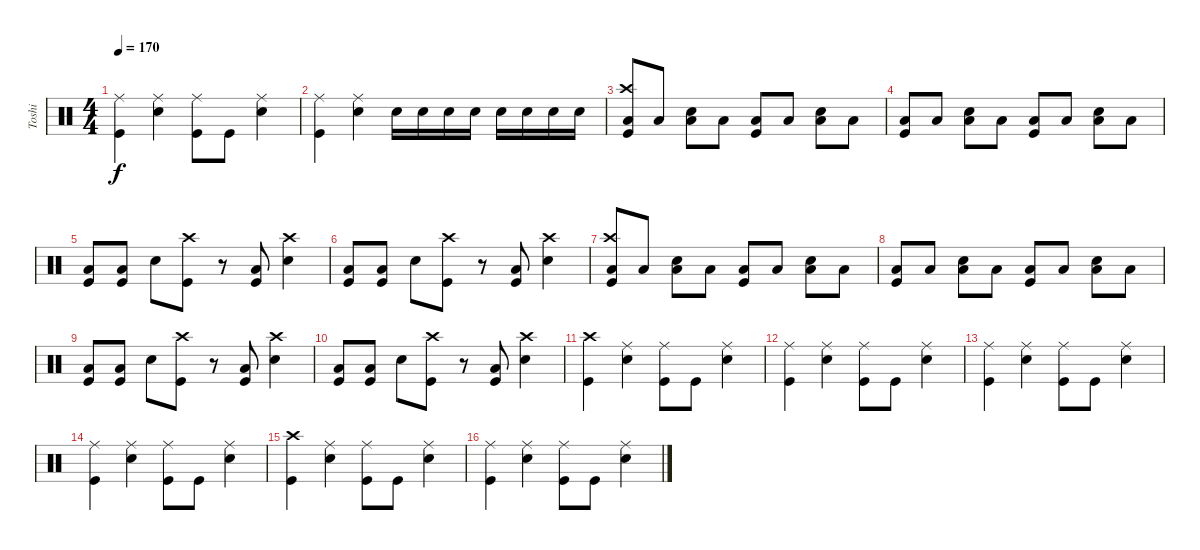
\track ("Toshi" "Toshi") {instrument percussion}
\staff {score}
\articulation defaults
\ts (4 4)
\tempo 170
\clef neutral
\ks c
("Ride (middle)" "Kick (hit)").4{dy f} ("Ride (middle)" "Snare (hit) 2").4 ("Ride (middle)" "Kick (hit)").8 "Kick (hit)".8 ("Ride (middle)" "Snare (hit) 2").4 |
("Ride (middle)" "Kick (hit)").4 ("Ride (middle)" "Snare (hit) 2").4 "Snare (hit) 2".16 "Snare (hit) 2".16 "Snare (hit) 2".16 "Snare (hit) 2".16 "Snare (hit) 2".16 "Snare (hit) 2".16 "Snare (hit) 2".16 "Snare (hit) 2".16 |
("Crash high (hit)" "Kick (hit)" "Low Floor Tom (hit)").8 "Low Floor Tom (hit)".8 ("Snare (hit) 2" "Low Floor Tom (hit)").8 "Low Floor Tom (hit)".8 ("Kick (hit)" "Low Floor Tom (hit)").8 "Low Floor Tom (hit)".8 ("Snare (hit) 2" "Low Floor Tom (hit)").8 "Low Floor Tom (hit)".8 |
("Kick (hit)" "Low Floor Tom (hit)").8 "Low Floor Tom (hit)".8 ("Snare (hit) 2" "Low Floor Tom (hit)").8 "Low Floor Tom (hit)".8 ("Kick (hit)" "Low Floor Tom (hit)").8 "Low Floor Tom (hit)".8 ("Snare (hit) 2" "Low Floor Tom (hit)").8 "Low Floor Tom (hit)".8 |
("Kick (hit)" "Low Floor Tom (hit)").8 ("Kick (hit)" "Low Floor Tom (hit)").8 "Snare (hit) 2".8 ("Crash high (hit)" "Kick (hit)").8 r.8 ("Kick (hit)" "Low Floor Tom (hit)").8 ("Crash high (hit)" "Snare (hit) 2").4 |
("Kick (hit)" "Low Floor Tom (hit)").8 ("Kick (hit)" "Low Floor Tom (hit)").8 "Snare (hit) 2".8 ("Crash high (hit)" "Kick (hit)").8 r.8 ("Kick (hit)" "Low Floor Tom (hit)").8 ("Crash high (hit)" "Snare (hit) 2").4 |
("Crash high (hit)" "Kick (hit)" "Low Floor Tom (hit)").8 "Low Floor Tom (hit)".8 ("Snare (hit) 2" "Low Floor Tom (hit)").8 "Low Floor Tom (hit)".8 ("Kick (hit)" "Low Floor Tom (hit)").8 "Low Floor Tom (hit)".8 ("Snare (hit) 2" "Low Floor Tom (hit)").8 "Low Floor Tom (hit)".8 |
("Kick (hit)" "Low Floor Tom (hit)").8 "Low Floor Tom (hit)".8 ("Snare (hit) 2" "Low Floor Tom (hit)").8 "Low Floor Tom (hit)".8 ("Kick (hit)" "Low Floor Tom (hit)").8 "Low Floor Tom (hit)".8 ("Snare (hit) 2" "Low Floor Tom (hit)").8 "Low Floor Tom (hit)".8 |
("Kick (hit)" "Low Floor Tom (hit)").8 ("Kick (hit)" "Low Floor Tom (hit)").8 "Snare (hit) 2".8 ("Crash high (hit)" "Kick (hit)").8 r.8 ("Kick (hit)" "Low Floor Tom (hit)").8 ("Crash high (hit)" "Snare (hit) 2").4 |
("Kick (hit)" "Low Floor Tom (hit)").8 ("Kick (hit)" "Low Floor Tom (hit)").8 "Snare (hit) 2".8 ("Crash high (hit)" "Kick (hit)").8 r.8 ("Kick (hit)" "Low Floor Tom (hit)").8 ("Crash high (hit)" "Snare (hit) 2").4 |
("Crash high (hit)" "Kick (hit)").4 ("Ride (middle)" "Snare (hit) 2").4 ("Ride (middle)" "Kick (hit)").8 "Kick (hit)".8 ("Ride (middle)" "Snare (hit) 2").4 |
("Ride (middle)" "Kick (hit)").4 ("Ride (middle)" "Snare (hit) 2").4 ("Ride (middle)" "Kick (hit)").8 "Kick (hit)".8 ("Ride (middle)" "Snare (hit) 2").4 |
("Ride (middle)" "Kick (hit)").4 ("Ride (middle)" "Snare (hit) 2").4 ("Ride (middle)" "Kick (hit)").8 "Kick (hit)".8 ("Ride (middle)" "Snare (hit) 2").4 |
("Ride (middle)" "Kick (hit)").4 ("Ride (middle)" "Snare (hit) 2").4 ("Ride (middle)" "Kick (hit)").8 "Kick (hit)".8 ("Ride (middle)" "Snare (hit) 2").4 |
("Crash high (hit)" "Kick (hit)").4 ("Ride (middle)" "Snare (hit) 2").4 ("Ride (middle)" "Kick (hit)").8 "Kick (hit)".8 ("Ride (middle)" "Snare (hit) 2").4 |
("Ride (middle)" "Kick (hit)").4 ("Ride (middle)" "Snare (hit) 2").4 ("Ride (middle)" "Kick (hit)").8 "Kick (hit)".8 ("Ride (middle)" "Snare (hit) 2").4
